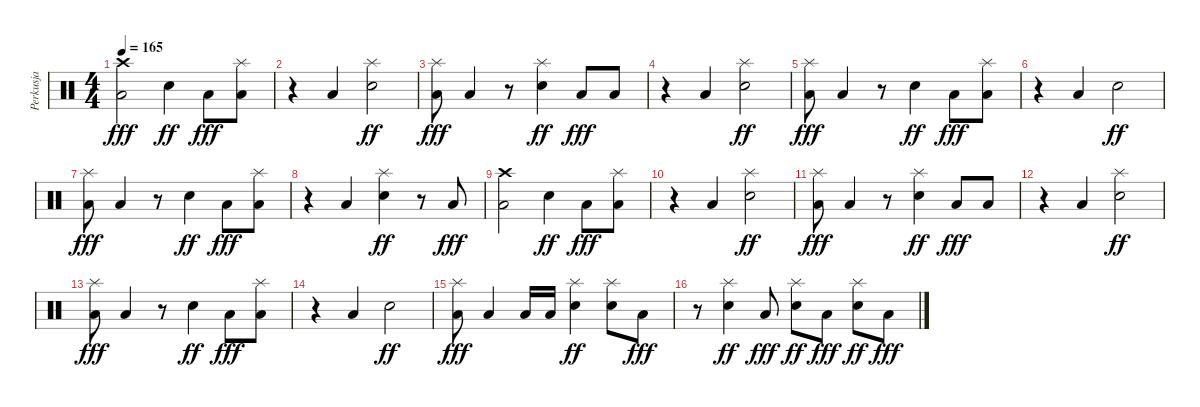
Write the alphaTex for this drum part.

\track ("Perkusja" "Perkusja") {instrument percussion}
\staff {score}
\articulation defaults
\ts (4 4)
\tempo 165
\clef neutral
\ks c
("Crash high (hit)" "Low Tom (hit)").2{dy fff} "Electric Snare (hit)".4{dy ff} "Low Tom (hit)".8{dy fff} ("Splash (hit)" "Low Tom (hit)").8 |
r.4 "Low Tom (hit)".4 ("Splash (hit)" "Electric Snare (hit)").2{dy ff} |
("Splash (hit)" "Low Tom (hit)").8{dy fff} "Low Tom (hit)".4 r.8 ("Splash (hit)" "Electric Snare (hit)").4{dy ff} "Low Tom (hit)".8{dy fff} "Low Tom (hit)".8 |
r.4 "Low Tom (hit)".4 ("Splash (hit)" "Electric Snare (hit)").2{dy ff} |
("Splash (hit)" "Low Tom (hit)").8{dy fff} "Low Tom (hit)".4 r.8 "Electric Snare (hit)".4{dy ff} "Low Tom (hit)".8{dy fff} ("Splash (hit)" "Low Tom (hit)").8 |
r.4 "Low Tom (hit)".4 "Electric Snare (hit)".2{dy ff} |
("Splash (hit)" "Low Tom (hit)").8{dy fff} "Low Tom (hit)".4 r.8 "Electric Snare (hit)".4{dy ff} "Low Tom (hit)".8{dy fff} ("Splash (hit)" "Low Tom (hit)").8 |
r.4 "Low Tom (hit)".4 ("Splash (hit)" "Electric Snare (hit)").4{dy ff} r.8 "Low Tom (hit)".8{dy fff} |
("Crash high (hit)" "Low Tom (hit)").2 "Electric Snare (hit)".4{dy ff} "Low Tom (hit)".8{dy fff} ("Splash (hit)" "Low Tom (hit)").8 |
r.4 "Low Tom (hit)".4 ("Splash (hit)" "Electric Snare (hit)").2{dy ff} |
("Splash (hit)" "Low Tom (hit)").8{dy fff} "Low Tom (hit)".4 r.8 ("Splash (hit)" "Electric Snare (hit)").4{dy ff} "Low Tom (hit)".8{dy fff} "Low Tom (hit)".8 |
r.4 "Low Tom (hit)".4 ("Splash (hit)" "Electric Snare (hit)").2{dy ff} |
("Splash (hit)" "Low Tom (hit)").8{dy fff} "Low Tom (hit)".4 r.8 "Electric Snare (hit)".4{dy ff} "Low Tom (hit)".8{dy fff} ("Splash (hit)" "Low Tom (hit)").8 |
r.4 "Low Tom (hit)".4 "Electric Snare (hit)".2{dy ff} |
("Splash (hit)" "Low Tom (hit)").8{dy fff} "Low Tom (hit)".4 "Low Tom (hit)".16 "Low Tom (hit)".16 ("Splash (hit)" "Electric Snare (hit)").4{dy ff} ("Splash (hit)" "Electric Snare (hit)").8 "Low Tom (hit)".8{dy fff} |
r.8 ("Splash (hit)" "Electric Snare (hit)").4{dy ff} "Low Tom (hit)".8{dy fff} ("Splash (hit)" "Electric Snare (hit)").8{dy ff} "Low Tom (hit)".8{dy fff} ("Splash (hit)" "Electric Snare (hit)").8{dy ff} "Low Tom (hit)".8{dy fff}
